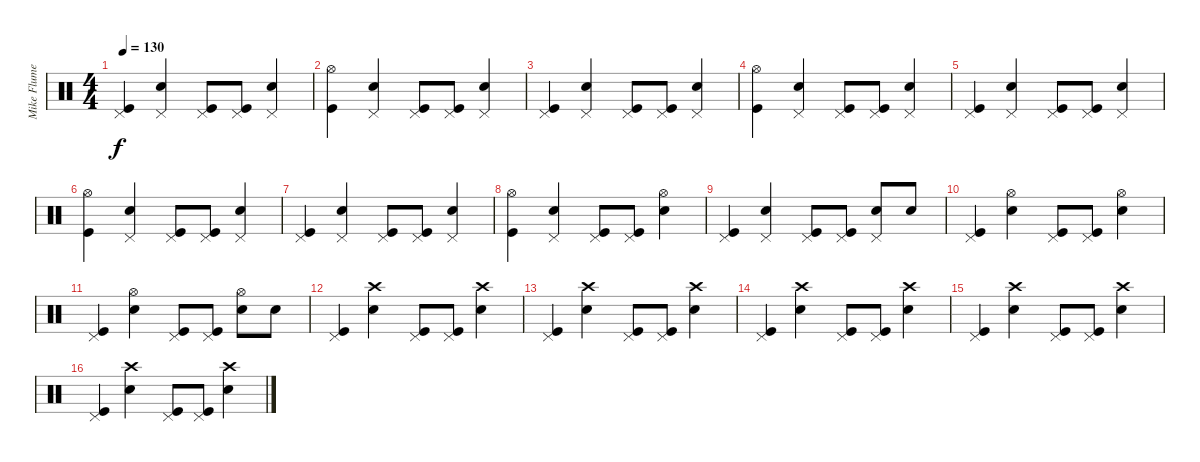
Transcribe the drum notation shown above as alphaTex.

\track ("Mike Flumee" "Mike Flume") {instrument percussion}
\staff {score}
\articulation defaults
\ts (4 4)
\tempo 130
\clef neutral
\ks c
("Pedal Hi-Hat (hit)" "Kick (hit)").4{dy f} ("Pedal Hi-Hat (hit)" "Electric Snare (hit)").4 ("Pedal Hi-Hat (hit)" "Kick (hit)").8 ("Pedal Hi-Hat (hit)" "Kick (hit)").8 ("Pedal Hi-Hat (hit)" "Electric Snare (hit)").4 |
("Hi-Hat (open)" "Kick (hit)").4 ("Pedal Hi-Hat (hit)" "Electric Snare (hit)").4 ("Pedal Hi-Hat (hit)" "Kick (hit)").8 ("Pedal Hi-Hat (hit)" "Kick (hit)").8 ("Pedal Hi-Hat (hit)" "Electric Snare (hit)").4 |
("Pedal Hi-Hat (hit)" "Kick (hit)").4 ("Pedal Hi-Hat (hit)" "Electric Snare (hit)").4 ("Pedal Hi-Hat (hit)" "Kick (hit)").8 ("Pedal Hi-Hat (hit)" "Kick (hit)").8 ("Pedal Hi-Hat (hit)" "Electric Snare (hit)").4 |
("Hi-Hat (open)" "Kick (hit)").4 ("Pedal Hi-Hat (hit)" "Electric Snare (hit)").4 ("Pedal Hi-Hat (hit)" "Kick (hit)").8 ("Pedal Hi-Hat (hit)" "Kick (hit)").8 ("Pedal Hi-Hat (hit)" "Electric Snare (hit)").4 |
("Pedal Hi-Hat (hit)" "Kick (hit)").4 ("Pedal Hi-Hat (hit)" "Electric Snare (hit)").4 ("Pedal Hi-Hat (hit)" "Kick (hit)").8 ("Pedal Hi-Hat (hit)" "Kick (hit)").8 ("Pedal Hi-Hat (hit)" "Electric Snare (hit)").4 |
("Hi-Hat (open)" "Kick (hit)").4 ("Pedal Hi-Hat (hit)" "Electric Snare (hit)").4 ("Pedal Hi-Hat (hit)" "Kick (hit)").8 ("Pedal Hi-Hat (hit)" "Kick (hit)").8 ("Pedal Hi-Hat (hit)" "Electric Snare (hit)").4 |
("Pedal Hi-Hat (hit)" "Kick (hit)").4 ("Pedal Hi-Hat (hit)" "Electric Snare (hit)").4 ("Pedal Hi-Hat (hit)" "Kick (hit)").8 ("Pedal Hi-Hat (hit)" "Kick (hit)").8 ("Pedal Hi-Hat (hit)" "Electric Snare (hit)").4 |
("Hi-Hat (open)" "Kick (hit)").4 ("Pedal Hi-Hat (hit)" "Electric Snare (hit)").4 ("Pedal Hi-Hat (hit)" "Kick (hit)").8 ("Pedal Hi-Hat (hit)" "Kick (hit)").8 ("Hi-Hat (open)" "Electric Snare (hit)").4 |
("Pedal Hi-Hat (hit)" "Kick (hit)").4 ("Pedal Hi-Hat (hit)" "Electric Snare (hit)").4 ("Pedal Hi-Hat (hit)" "Kick (hit)").8 ("Pedal Hi-Hat (hit)" "Kick (hit)").8 ("Pedal Hi-Hat (hit)" "Electric Snare (hit)").8 "Electric Snare (hit)".8 |
("Pedal Hi-Hat (hit)" "Kick (hit)").4 ("Hi-Hat (open)" "Electric Snare (hit)").4 ("Pedal Hi-Hat (hit)" "Kick (hit)").8 ("Pedal Hi-Hat (hit)" "Kick (hit)").8 ("Hi-Hat (open)" "Electric Snare (hit)").4 |
("Pedal Hi-Hat (hit)" "Kick (hit)").4 ("Hi-Hat (open)" "Electric Snare (hit)").4 ("Pedal Hi-Hat (hit)" "Kick (hit)").8 ("Pedal Hi-Hat (hit)" "Kick (hit)").8 ("Hi-Hat (open)" "Electric Snare (hit)").8 "Electric Snare (hit)".8 |
("Pedal Hi-Hat (hit)" "Kick (hit)").4 ("Crash high (hit)" "Electric Snare (hit)").4 ("Pedal Hi-Hat (hit)" "Kick (hit)").8 ("Pedal Hi-Hat (hit)" "Kick (hit)").8 ("Crash high (hit)" "Electric Snare (hit)").4 |
("Pedal Hi-Hat (hit)" "Kick (hit)").4 ("Crash high (hit)" "Electric Snare (hit)").4 ("Pedal Hi-Hat (hit)" "Kick (hit)").8 ("Pedal Hi-Hat (hit)" "Kick (hit)").8 ("Crash high (hit)" "Electric Snare (hit)").4 |
("Pedal Hi-Hat (hit)" "Kick (hit)").4 ("Crash high (hit)" "Electric Snare (hit)").4 ("Pedal Hi-Hat (hit)" "Kick (hit)").8 ("Pedal Hi-Hat (hit)" "Kick (hit)").8 ("Crash high (hit)" "Electric Snare (hit)").4 |
("Pedal Hi-Hat (hit)" "Kick (hit)").4 ("Crash high (hit)" "Electric Snare (hit)").4 ("Pedal Hi-Hat (hit)" "Kick (hit)").8 ("Pedal Hi-Hat (hit)" "Kick (hit)").8 ("Crash high (hit)" "Electric Snare (hit)").4 |
("Pedal Hi-Hat (hit)" "Kick (hit)").4 ("Crash high (hit)" "Electric Snare (hit)").4 ("Pedal Hi-Hat (hit)" "Kick (hit)").8 ("Pedal Hi-Hat (hit)" "Kick (hit)").8 ("Crash high (hit)" "Electric Snare (hit)").4
